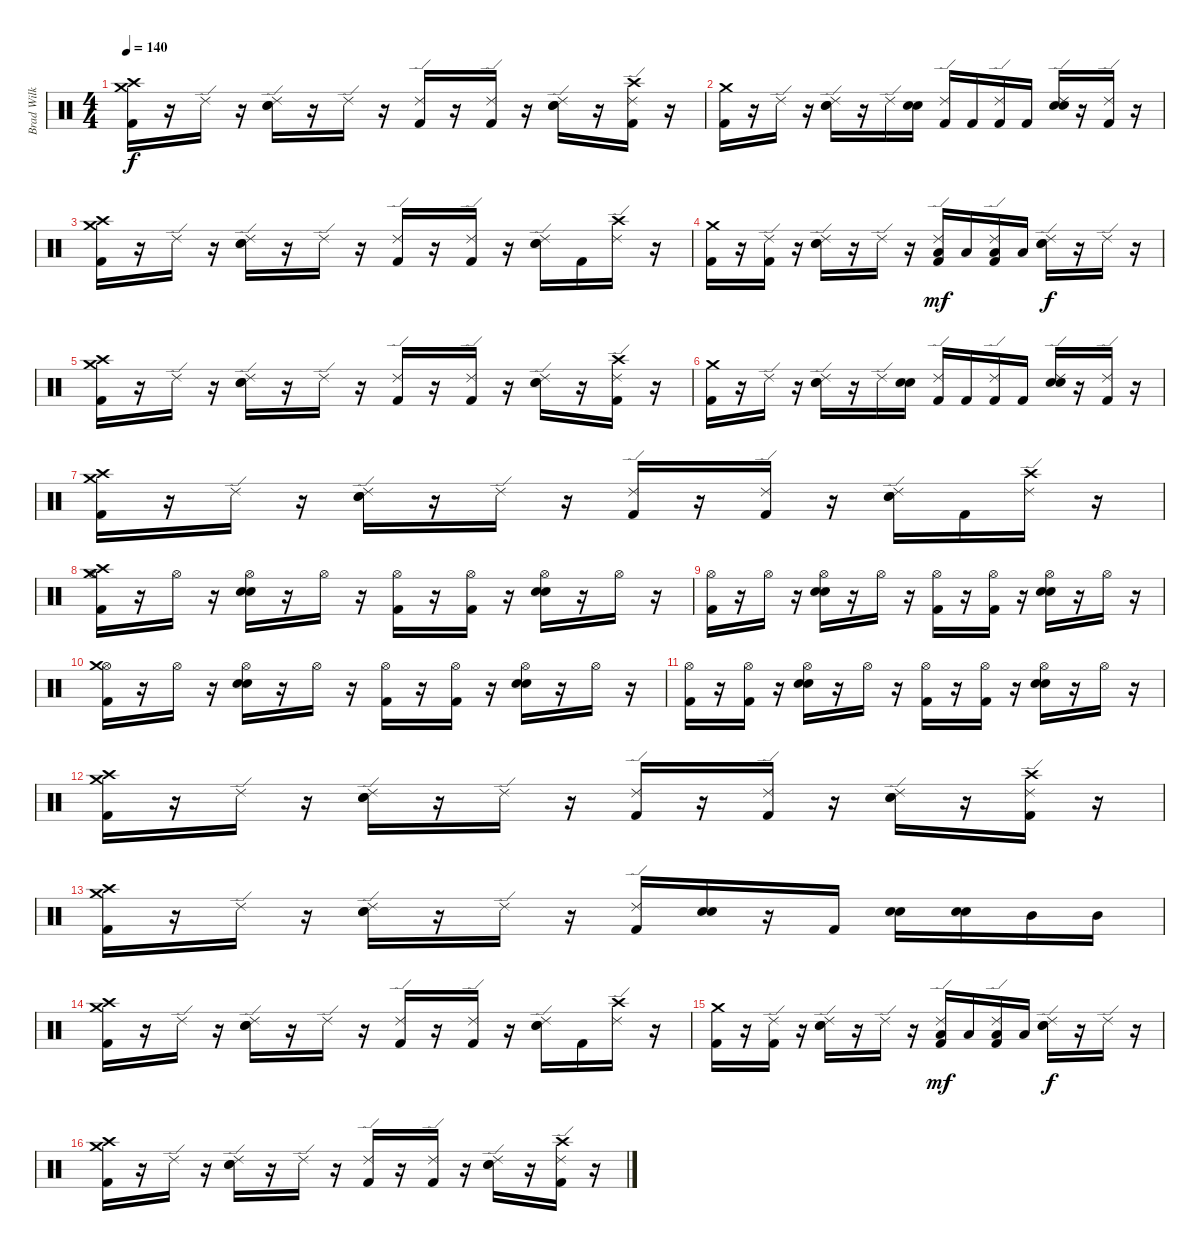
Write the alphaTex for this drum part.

\track ("Brad Wilk" "Brad Wilk") {instrument percussion}
\staff {score}
\articulation defaults
\ts (4 4)
\tempo 140
\clef neutral
\ks c
("Crash medium (hit)" "Crash high (hit)" "Kick (hit) 2").16{dy f} r.16 "Ride (edge) 2".16 r.16 ("Ride (edge) 2" "Electric Snare (hit)" "Snare (hit) 2").16 r.16 "Ride (edge) 2".16 r.16 ("Ride (edge) 2" "Kick (hit) 2").16 r.16 ("Ride (edge) 2" "Kick (hit) 2").16 r.16 ("Ride (edge) 2" "Electric Snare (hit)" "Snare (hit) 2").16 r.16 ("Ride (edge) 2" "Crash high (hit)" "Kick (hit) 2").16 r.16 |
("Crash medium (hit)" "Kick (hit) 2").16 r.16 "Ride (edge) 2".16 r.16 ("Ride (edge) 2" "Electric Snare (hit)" "Snare (hit) 2").16 r.16 "Ride (edge) 2".16 ("Electric Snare (hit)" "Snare (hit) 2").16 ("Ride (edge) 2" "Kick (hit) 2").16 "Kick (hit) 2".16 ("Ride (edge) 2" "Kick (hit) 2").16 "Kick (hit) 2".16 ("Ride (edge) 2" "Electric Snare (hit)" "Snare (hit) 2").16 r.16 ("Ride (edge) 2" "Kick (hit) 2").16 r.16 |
("Crash medium (hit)" "Crash high (hit)" "Kick (hit) 2").16 r.16 "Ride (edge) 2".16 r.16 ("Ride (edge) 2" "Electric Snare (hit)" "Snare (hit) 2").16 r.16 "Ride (edge) 2".16 r.16 ("Ride (edge) 2" "Kick (hit) 2").16 r.16 ("Ride (edge) 2" "Kick (hit) 2").16 r.16 ("Ride (edge) 2" "Electric Snare (hit)" "Snare (hit) 2").16 "Kick (hit) 2".16 ("Ride (edge) 2" "Crash high (hit)").16 r.16 |
("Crash medium (hit)" "Kick (hit) 2").16 r.16 ("Ride (edge) 2" "Kick (hit) 2").16 r.16 ("Ride (edge) 2" "Electric Snare (hit)" "Snare (hit) 2").16 r.16 "Ride (edge) 2".16 r.16 ("Ride (edge) 2" "Low Tom (hit)" "Kick (hit) 2").16{dy mf} "Low Tom (hit)".16 ("Ride (edge) 2" "Low Tom (hit)" "Kick (hit) 2").16 "Low Tom (hit)".16 ("Ride (edge) 2" "Electric Snare (hit)" "Snare (hit) 2").16{dy f} r.16 "Ride (edge) 2".16 r.16 |
("Crash medium (hit)" "Crash high (hit)" "Kick (hit) 2").16 r.16 "Ride (edge) 2".16 r.16 ("Ride (edge) 2" "Electric Snare (hit)" "Snare (hit) 2").16 r.16 "Ride (edge) 2".16 r.16 ("Ride (edge) 2" "Kick (hit) 2").16 r.16 ("Ride (edge) 2" "Kick (hit) 2").16 r.16 ("Ride (edge) 2" "Electric Snare (hit)" "Snare (hit) 2").16 r.16 ("Ride (edge) 2" "Crash high (hit)" "Kick (hit) 2").16 r.16 |
("Crash medium (hit)" "Kick (hit) 2").16 r.16 "Ride (edge) 2".16 r.16 ("Ride (edge) 2" "Electric Snare (hit)" "Snare (hit) 2").16 r.16 "Ride (edge) 2".16 ("Electric Snare (hit)" "Snare (hit) 2").16 ("Ride (edge) 2" "Kick (hit) 2").16 "Kick (hit) 2".16 ("Ride (edge) 2" "Kick (hit) 2").16 "Kick (hit) 2".16 ("Ride (edge) 2" "Electric Snare (hit)" "Snare (hit) 2").16 r.16 ("Ride (edge) 2" "Kick (hit) 2").16 r.16 |
("Crash medium (hit)" "Crash high (hit)" "Kick (hit) 2").16 r.16 "Ride (edge) 2".16 r.16 ("Ride (edge) 2" "Electric Snare (hit)" "Snare (hit) 2").16 r.16 "Ride (edge) 2".16 r.16 ("Ride (edge) 2" "Kick (hit) 2").16 r.16 ("Ride (edge) 2" "Kick (hit) 2").16 r.16 ("Ride (edge) 2" "Electric Snare (hit)" "Snare (hit) 2").16 "Kick (hit) 2".16 ("Ride (edge) 2" "Crash high (hit)").16 r.16 |
("Hi-Hat (open)" "Crash medium (hit)" "Crash high (hit)" "Kick (hit) 2").16 r.16 "Hi-Hat (open)".16 r.16 ("Hi-Hat (open)" "Electric Snare (hit)" "Snare (hit) 2").16 r.16 "Hi-Hat (open)".16 r.16 ("Hi-Hat (open)" "Kick (hit) 2").16 r.16 ("Hi-Hat (open)" "Kick (hit) 2").16 r.16 ("Hi-Hat (open)" "Electric Snare (hit)" "Snare (hit) 2").16 r.16 "Hi-Hat (open)".16 r.16 |
("Hi-Hat (open)" "Kick (hit) 2").16 r.16 "Hi-Hat (open)".16 r.16 ("Hi-Hat (open)" "Electric Snare (hit)" "Snare (hit) 2").16 r.16 "Hi-Hat (open)".16 r.16 ("Hi-Hat (open)" "Kick (hit) 2").16 r.16 ("Hi-Hat (open)" "Kick (hit) 2").16 r.16 ("Hi-Hat (open)" "Electric Snare (hit)" "Snare (hit) 2").16 r.16 "Hi-Hat (open)".16 r.16 |
("Hi-Hat (open)" "Crash medium (hit)" "Kick (hit) 2").16 r.16 "Hi-Hat (open)".16 r.16 ("Hi-Hat (open)" "Electric Snare (hit)" "Snare (hit) 2").16 r.16 "Hi-Hat (open)".16 r.16 ("Hi-Hat (open)" "Kick (hit) 2").16 r.16 ("Hi-Hat (open)" "Kick (hit) 2").16 r.16 ("Hi-Hat (open)" "Electric Snare (hit)" "Snare (hit) 2").16 r.16 "Hi-Hat (open)".16 r.16 |
("Hi-Hat (open)" "Kick (hit) 2").16 r.16 ("Hi-Hat (open)" "Kick (hit) 2").16 r.16 ("Hi-Hat (open)" "Electric Snare (hit)" "Snare (hit) 2").16 r.16 "Hi-Hat (open)".16 r.16 ("Hi-Hat (open)" "Kick (hit) 2").16 r.16 ("Hi-Hat (open)" "Kick (hit) 2").16 r.16 ("Hi-Hat (open)" "Electric Snare (hit)" "Snare (hit) 2").16 r.16 "Hi-Hat (open)".16 r.16 |
("Crash medium (hit)" "Crash high (hit)" "Kick (hit) 2").16 r.16 "Ride (edge) 2".16 r.16 ("Ride (edge) 2" "Electric Snare (hit)" "Snare (hit) 2").16 r.16 "Ride (edge) 2".16 r.16 ("Ride (edge) 2" "Kick (hit) 2").16 r.16 ("Ride (edge) 2" "Kick (hit) 2").16 r.16 ("Ride (edge) 2" "Electric Snare (hit)" "Snare (hit) 2").16 r.16 ("Ride (edge) 2" "Crash high (hit)" "Kick (hit) 2").16 r.16 |
("Crash medium (hit)" "Crash high (hit)" "Kick (hit) 2").16 r.16 "Ride (edge) 2".16 r.16 ("Ride (edge) 2" "Electric Snare (hit)" "Snare (hit) 2").16 r.16 "Ride (edge) 2".16 r.16 ("Ride (edge) 2" "Kick (hit) 2").16 ("Electric Snare (hit)" "Snare (hit) 2").16 r.16 "Kick (hit) 2".16 ("Electric Snare (hit)" "Snare (hit) 2").16 ("Electric Snare (hit)" "Electric Snare (hit)").16 "Mid Tom (hit)".16 "Mid Tom (hit)".16 |
("Crash medium (hit)" "Crash high (hit)" "Kick (hit) 2").16 r.16 "Ride (edge) 2".16 r.16 ("Ride (edge) 2" "Electric Snare (hit)" "Snare (hit) 2").16 r.16 "Ride (edge) 2".16 r.16 ("Ride (edge) 2" "Kick (hit) 2").16 r.16 ("Ride (edge) 2" "Kick (hit) 2").16 r.16 ("Ride (edge) 2" "Electric Snare (hit)" "Snare (hit) 2").16 "Kick (hit) 2".16 ("Ride (edge) 2" "Crash high (hit)").16 r.16 |
("Crash medium (hit)" "Kick (hit) 2").16 r.16 ("Ride (edge) 2" "Kick (hit) 2").16 r.16 ("Ride (edge) 2" "Electric Snare (hit)" "Snare (hit) 2").16 r.16 "Ride (edge) 2".16 r.16 ("Ride (edge) 2" "Low Tom (hit)" "Kick (hit) 2").16{dy mf} "Low Tom (hit)".16 ("Ride (edge) 2" "Low Tom (hit)" "Kick (hit) 2").16 "Low Tom (hit)".16 ("Ride (edge) 2" "Electric Snare (hit)" "Snare (hit) 2").16{dy f} r.16 "Ride (edge) 2".16 r.16 |
("Crash medium (hit)" "Crash high (hit)" "Kick (hit) 2").16 r.16 "Ride (edge) 2".16 r.16 ("Ride (edge) 2" "Electric Snare (hit)" "Snare (hit) 2").16 r.16 "Ride (edge) 2".16 r.16 ("Ride (edge) 2" "Kick (hit) 2").16 r.16 ("Ride (edge) 2" "Kick (hit) 2").16 r.16 ("Ride (edge) 2" "Electric Snare (hit)" "Snare (hit) 2").16 r.16 ("Ride (edge) 2" "Crash high (hit)" "Kick (hit) 2").16 r.16
